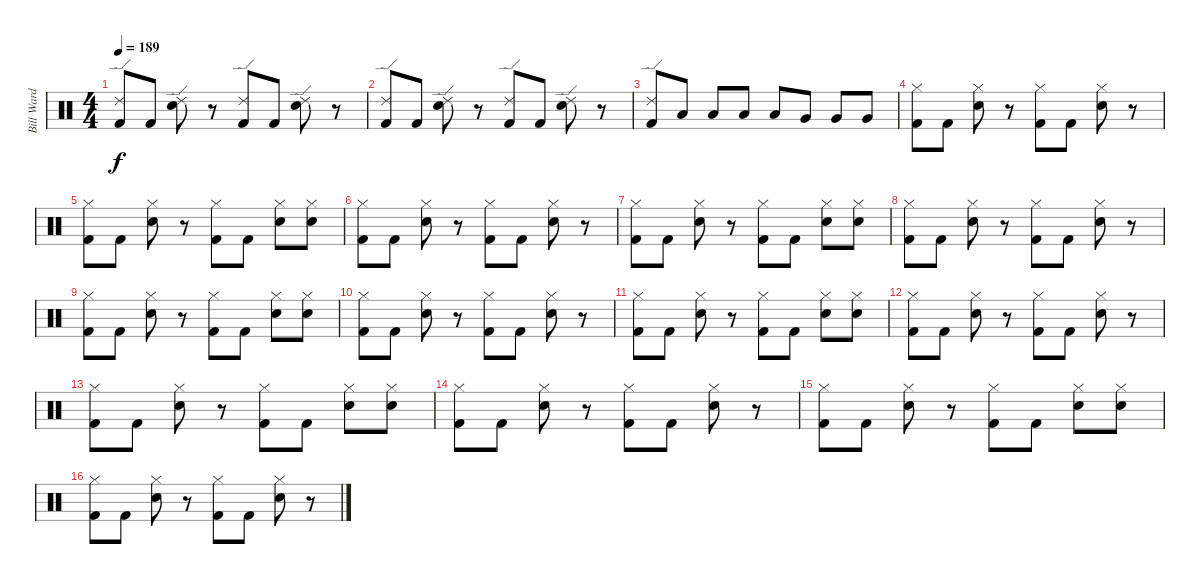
\track ("Bill Ward" "Bill Ward") {instrument percussion}
\staff {score}
\articulation defaults
\ts (4 4)
\tempo 189
\clef neutral
\ks c
("Ride (edge) 2" "Kick (hit) 2").8{dy f} "Kick (hit) 2".8 ("Electric Snare (hit)" "Ride (edge) 2").8 r.8 ("Ride (edge) 2" "Kick (hit) 2").8 "Kick (hit) 2".8 ("Ride (edge) 2" "Electric Snare (hit)").8 r.8 |
("Ride (edge) 2" "Kick (hit) 2").8 "Kick (hit) 2".8 ("Ride (edge) 2" "Electric Snare (hit)").8 r.8 ("Kick (hit) 2" "Ride (edge) 2").8 "Kick (hit) 2".8 ("Electric Snare (hit)" "Ride (edge) 2").8 r.8 |
("Ride (edge) 2" "Kick (hit) 2").8 "Low Tom (hit)".8 "Low Tom (hit)".8 "Low Tom (hit)".8 "Low Tom (hit)".8 "Very Low Tom (hit)".8 "Very Low Tom (hit)".8 "Very Low Tom (hit)".8 |
("Kick (hit) 2" "Hi-Hat (closed)").8 "Kick (hit) 2".8 ("Hi-Hat (closed)" "Electric Snare (hit)").8 r.8 ("Kick (hit) 2" "Hi-Hat (closed)").8 "Kick (hit) 2".8 ("Hi-Hat (closed)" "Electric Snare (hit)").8 r.8 |
("Hi-Hat (closed)" "Kick (hit) 2").8 "Kick (hit) 2".8 ("Hi-Hat (closed)" "Electric Snare (hit)").8 r.8 ("Kick (hit) 2" "Hi-Hat (closed)").8 "Kick (hit) 2".8 ("Hi-Hat (closed)" "Electric Snare (hit)").8 ("Electric Snare (hit)" "Hi-Hat (closed)").8 |
("Kick (hit) 2" "Hi-Hat (closed)").8 "Kick (hit) 2".8 ("Hi-Hat (closed)" "Electric Snare (hit)").8 r.8 ("Hi-Hat (closed)" "Kick (hit) 2").8 "Kick (hit) 2".8 ("Electric Snare (hit)" "Hi-Hat (closed)").8 r.8 |
("Kick (hit) 2" "Hi-Hat (closed)").8 "Kick (hit) 2".8 ("Hi-Hat (closed)" "Electric Snare (hit)").8 r.8 ("Hi-Hat (closed)" "Kick (hit) 2").8 "Kick (hit) 2".8 ("Hi-Hat (closed)" "Electric Snare (hit)").8 ("Hi-Hat (closed)" "Electric Snare (hit)").8 |
("Kick (hit) 2" "Hi-Hat (closed)").8 "Kick (hit) 2".8 ("Hi-Hat (closed)" "Electric Snare (hit)").8 r.8 ("Hi-Hat (closed)" "Kick (hit) 2").8 "Kick (hit) 2".8 ("Hi-Hat (closed)" "Electric Snare (hit)").8 r.8 |
("Hi-Hat (closed)" "Kick (hit) 2").8 "Kick (hit) 2".8 ("Hi-Hat (closed)" "Electric Snare (hit)").8 r.8 ("Kick (hit) 2" "Hi-Hat (closed)").8 "Kick (hit) 2".8 ("Electric Snare (hit)" "Hi-Hat (closed)").8 ("Electric Snare (hit)" "Hi-Hat (closed)").8 |
("Hi-Hat (closed)" "Kick (hit) 2").8 "Kick (hit) 2".8 ("Hi-Hat (closed)" "Electric Snare (hit)").8 r.8 ("Hi-Hat (closed)" "Kick (hit) 2").8 "Kick (hit) 2".8 ("Hi-Hat (closed)" "Electric Snare (hit)").8 r.8 |
("Kick (hit) 2" "Hi-Hat (closed)").8 "Kick (hit) 2".8 ("Hi-Hat (closed)" "Electric Snare (hit)").8 r.8 ("Hi-Hat (closed)" "Kick (hit) 2").8 "Kick (hit) 2".8 ("Hi-Hat (closed)" "Electric Snare (hit)").8 ("Hi-Hat (closed)" "Electric Snare (hit)").8 |
("Hi-Hat (closed)" "Kick (hit) 2").8 "Kick (hit) 2".8 ("Hi-Hat (closed)" "Electric Snare (hit)").8 r.8 ("Kick (hit) 2" "Hi-Hat (closed)").8 "Kick (hit) 2".8 ("Hi-Hat (closed)" "Electric Snare (hit)").8 r.8 |
("Hi-Hat (closed)" "Kick (hit) 2").8 "Kick (hit) 2".8 ("Electric Snare (hit)" "Hi-Hat (closed)").8 r.8 ("Kick (hit) 2" "Hi-Hat (closed)").8 "Kick (hit) 2".8 ("Electric Snare (hit)" "Hi-Hat (closed)").8 ("Electric Snare (hit)" "Hi-Hat (closed)").8 |
("Kick (hit) 2" "Hi-Hat (closed)").8 "Kick (hit) 2".8 ("Hi-Hat (closed)" "Electric Snare (hit)").8 r.8 ("Kick (hit) 2" "Hi-Hat (closed)").8 "Kick (hit) 2".8 ("Electric Snare (hit)" "Hi-Hat (closed)").8 r.8 |
("Hi-Hat (closed)" "Kick (hit) 2").8 "Kick (hit) 2".8 ("Hi-Hat (closed)" "Electric Snare (hit)").8 r.8 ("Hi-Hat (closed)" "Kick (hit) 2").8 "Kick (hit) 2".8 ("Hi-Hat (closed)" "Electric Snare (hit)").8 ("Electric Snare (hit)" "Hi-Hat (closed)").8 |
("Hi-Hat (closed)" "Kick (hit) 2").8 "Kick (hit) 2".8 ("Electric Snare (hit)" "Hi-Hat (closed)").8 r.8 ("Hi-Hat (closed)" "Kick (hit) 2").8 "Kick (hit) 2".8 ("Hi-Hat (closed)" "Electric Snare (hit)").8 r.8
